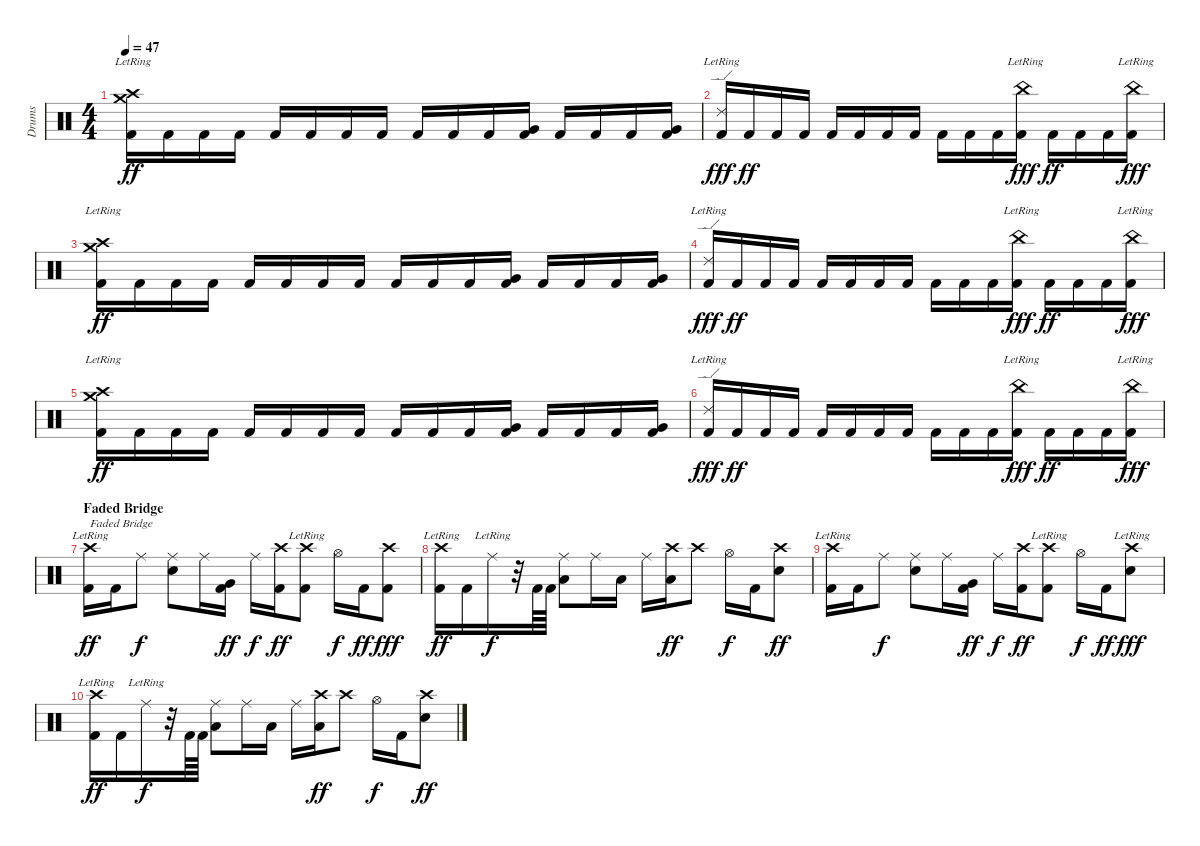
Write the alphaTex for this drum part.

\track ("Drums" "Drums") {instrument percussion}
\staff {score}
\articulation defaults
\ts (4 4)
\tempo 47
\clef neutral
\ks c
("Crash high (hit)"{lr} "Crash medium (hit)"{lr} "Kick (hit) 2").16{dy ff} "Kick (hit) 2".16 "Kick (hit) 2".16 "Kick (hit) 2".16 "Kick (hit) 2".16 "Kick (hit) 2".16 "Kick (hit) 2".16 "Kick (hit) 2".16 "Kick (hit) 2".16 "Kick (hit) 2".16 "Kick (hit) 2".16 ("Very Low Tom (hit)" "Kick (hit) 2").16 "Kick (hit) 2".16 "Kick (hit) 2".16 "Kick (hit) 2".16 ("Very Low Tom (hit)" "Kick (hit) 2").16 |
("Ride (edge) 2"{lr} "Kick (hit) 2").16{dy fff} "Kick (hit) 2".16{dy ff} "Kick (hit) 2".16 "Kick (hit) 2".16 "Kick (hit) 2".16 "Kick (hit) 2".16 "Kick (hit) 2".16 "Kick (hit) 2".16 "Kick (hit) 2".16 "Kick (hit) 2".16 "Kick (hit) 2".16 ("China (hit)"{lr} "Kick (hit) 2").16{dy fff} "Kick (hit) 2".16{dy ff} "Kick (hit) 2".16 "Kick (hit) 2".16 ("China (hit)"{lr} "Kick (hit) 2").16{dy fff} |
("Crash high (hit)"{lr} "Crash medium (hit)"{lr} "Kick (hit) 2").16{dy ff} "Kick (hit) 2".16 "Kick (hit) 2".16 "Kick (hit) 2".16 "Kick (hit) 2".16 "Kick (hit) 2".16 "Kick (hit) 2".16 "Kick (hit) 2".16 "Kick (hit) 2".16 "Kick (hit) 2".16 "Kick (hit) 2".16 ("Very Low Tom (hit)" "Kick (hit) 2").16 "Kick (hit) 2".16 "Kick (hit) 2".16 "Kick (hit) 2".16 ("Very Low Tom (hit)" "Kick (hit) 2").16 |
("Ride (edge) 2"{lr} "Kick (hit) 2").16{dy fff} "Kick (hit) 2".16{dy ff} "Kick (hit) 2".16 "Kick (hit) 2".16 "Kick (hit) 2".16 "Kick (hit) 2".16 "Kick (hit) 2".16 "Kick (hit) 2".16 "Kick (hit) 2".16 "Kick (hit) 2".16 "Kick (hit) 2".16 ("China (hit)"{lr} "Kick (hit) 2").16{dy fff} "Kick (hit) 2".16{dy ff} "Kick (hit) 2".16 "Kick (hit) 2".16 ("China (hit)"{lr} "Kick (hit) 2").16{dy fff} |
("Crash high (hit)"{lr} "Crash medium (hit)"{lr} "Kick (hit) 2").16{dy ff} "Kick (hit) 2".16 "Kick (hit) 2".16 "Kick (hit) 2".16 "Kick (hit) 2".16 "Kick (hit) 2".16 "Kick (hit) 2".16 "Kick (hit) 2".16 "Kick (hit) 2".16 "Kick (hit) 2".16 "Kick (hit) 2".16 ("Very Low Tom (hit)" "Kick (hit) 2").16 "Kick (hit) 2".16 "Kick (hit) 2".16 "Kick (hit) 2".16 ("Very Low Tom (hit)" "Kick (hit) 2").16 |
("Ride (edge) 2"{lr} "Kick (hit) 2").16{dy fff} "Kick (hit) 2".16{dy ff} "Kick (hit) 2".16 "Kick (hit) 2".16 "Kick (hit) 2".16 "Kick (hit) 2".16 "Kick (hit) 2".16 "Kick (hit) 2".16 "Kick (hit) 2".16 "Kick (hit) 2".16 "Kick (hit) 2".16 ("China (hit)"{lr} "Kick (hit) 2").16{dy fff} "Kick (hit) 2".16{dy ff} "Kick (hit) 2".16 "Kick (hit) 2".16 ("China (hit)"{lr} "Kick (hit) 2").16{dy fff} |
\section ("" "Faded Bridge")
("Crash high (hit)"{lr} "Kick (hit) 2").16{txt "Faded Bridge" dy ff} "Kick (hit) 2".16 "Ride (middle)".8{dy f} ("Ride (middle)" "Snare (hit) 2").8 "Ride (middle)".16 ("Very Low Tom (hit)" "Kick (hit) 2").16{dy ff} "Ride (middle)".16{dy f} ("Crash high (hit)" "Kick (hit) 2").16{dy ff} ("Crash high (hit)"{lr} "Kick (hit) 2").8 "Hi-Hat (open)".16{dy f} "Kick (hit) 2".16{dy ff} ("Crash high (hit)" "Kick (hit) 2").8{dy fff} |
("Crash high (hit)"{lr} "Kick (hit) 2").16{dy ff volume 0} "Kick (hit) 2".16 "Ride (middle)"{lr}.16{dy f} r.32 "Kick (hit) 2".64 "Kick (hit) 2".64 ("Ride (middle)" "Low Tom (hit)").8 "Ride (middle)".16 "Low Tom (hit)".16 "Ride (middle)".16 ("Crash high (hit)" "Low Tom (hit)").16{dy ff} "Crash high (hit)".8 "Hi-Hat (open)".16{dy f} "Kick (hit) 2".16 ("Crash high (hit)" "Snare (hit) 2").8{dy ff} |
("Crash high (hit)"{lr} "Kick (hit) 2").16 "Kick (hit) 2".16 "Ride (middle)".8{dy f} ("Ride (middle)" "Snare (hit) 2").8 "Ride (middle)".16 ("Very Low Tom (hit)" "Kick (hit) 2").16{dy ff} "Ride (middle)".16{dy f} ("Crash high (hit)" "Kick (hit) 2").16{dy ff} ("Crash high (hit)"{lr} "Kick (hit) 2").8 "Hi-Hat (open)".16{dy f} "Kick (hit) 2".16{dy ff} ("Crash high (hit)"{lr} "Snare (hit) 2").8{dy fff} |
("Crash high (hit)"{lr} "Kick (hit) 2").16{dy ff} "Kick (hit) 2".16 "Ride (middle)"{lr}.16{dy f} r.32 "Kick (hit) 2".64 "Kick (hit) 2".64 ("Ride (middle)" "Low Tom (hit)").8 "Ride (middle)".16 "Low Tom (hit)".16 "Ride (middle)".16 ("Crash high (hit)" "Low Tom (hit)").16{dy ff} "Crash high (hit)".8 "Hi-Hat (open)".16{dy f} "Kick (hit) 2".16 ("Crash high (hit)" "Snare (hit) 2").8{dy ff}
